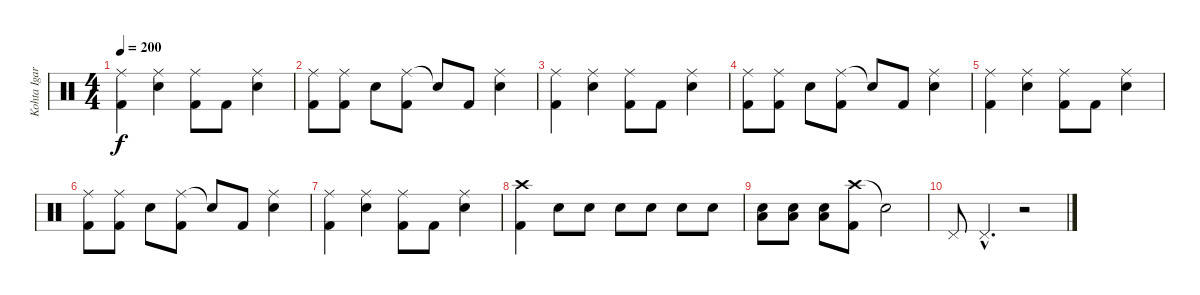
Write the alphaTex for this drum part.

\track ("Kohta Igarashi" "Kohta Igar") {instrument percussion}
\staff {score}
\articulation defaults
\ts (4 4)
\tempo 200
\clef neutral
\ks c
("Ride (middle)" "Kick (hit) 2").4{dy f} ("Ride (middle)" "Electric Snare (hit)").4 ("Ride (middle)" "Kick (hit) 2").8 "Kick (hit) 2".8 ("Ride (middle)" "Electric Snare (hit)").4 |
("Ride (middle)" "Kick (hit) 2").8 ("Ride (middle)" "Kick (hit) 2").8 "Electric Snare (hit)".8 ("Ride (middle)" "Kick (hit) 2").8 "Snare (hit)"{t}.8 "Kick (hit) 2".8 ("Ride (middle)" "Electric Snare (hit)").4 |
("Ride (middle)" "Kick (hit) 2").4 ("Ride (middle)" "Electric Snare (hit)").4 ("Ride (middle)" "Kick (hit) 2").8 "Kick (hit) 2".8 ("Ride (middle)" "Electric Snare (hit)").4 |
("Ride (middle)" "Kick (hit) 2").8 ("Ride (middle)" "Kick (hit) 2").8 "Electric Snare (hit)".8 ("Ride (middle)" "Kick (hit) 2").8 "Snare (hit)"{t}.8 "Kick (hit) 2".8 ("Ride (middle)" "Electric Snare (hit)").4 |
("Ride (middle)" "Kick (hit) 2").4 ("Ride (middle)" "Electric Snare (hit)").4 ("Ride (middle)" "Kick (hit) 2").8 "Kick (hit) 2".8 ("Ride (middle)" "Electric Snare (hit)").4 |
("Ride (middle)" "Kick (hit) 2").8 ("Ride (middle)" "Kick (hit) 2").8 "Electric Snare (hit)".8 ("Ride (middle)" "Kick (hit) 2").8 "Snare (hit)"{t}.8 "Kick (hit) 2".8 ("Ride (middle)" "Electric Snare (hit)").4 |
("Ride (middle)" "Kick (hit) 2").4 ("Ride (middle)" "Electric Snare (hit)").4 ("Ride (middle)" "Kick (hit) 2").8 "Kick (hit) 2".8 ("Ride (middle)" "Electric Snare (hit)").4 |
("Crash high (hit)" "Kick (hit) 2").4 "Electric Snare (hit)".8 "Electric Snare (hit)".8 "Electric Snare (hit)".8 "Electric Snare (hit)".8 "Electric Snare (hit)".8 "Electric Snare (hit)".8 |
("Electric Snare (hit)" "Low Floor Tom (hit)").8 ("Electric Snare (hit)" "Low Floor Tom (hit)").8 ("Electric Snare (hit)" "Low Floor Tom (hit)").8 ("Crash high (hit)" "Kick (hit) 2").8 "Snare (hit)"{t}.2 |
"Pedal Hi-Hat (hit)".8 "Pedal Hi-Hat (hit)"{hac}.4{d} r.2
